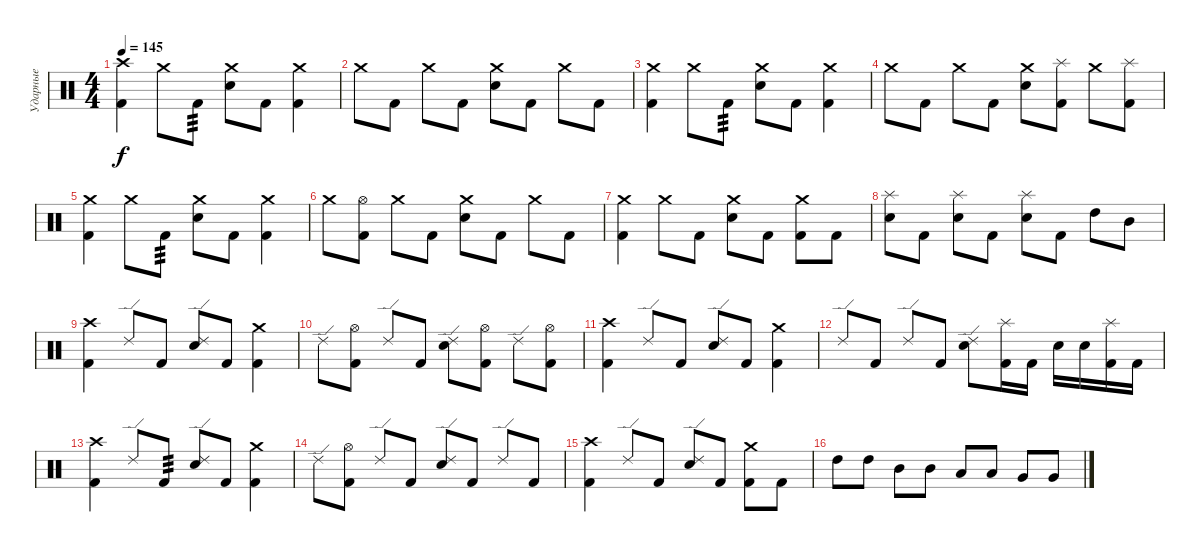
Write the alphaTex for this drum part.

\track ("Ударные" "Ударные") {instrument percussion}
\staff {score}
\articulation defaults
\ts (4 4)
\tempo 145
\clef neutral
\ks c
("Crash high (hit)" "Kick (hit) 2").4{dy f} "Crash medium (hit)".8 "Kick (hit) 2".8{tp 3} ("Crash medium (hit)" "Electric Snare (hit)").8 "Kick (hit) 2".8 ("Crash medium (hit)" "Kick (hit) 2").4 |
"Crash medium (hit)".8 "Kick (hit) 2".8 "Crash medium (hit)".8 "Kick (hit) 2".8 ("Crash medium (hit)" "Electric Snare (hit)").8 "Kick (hit) 2".8 "Crash medium (hit)".8 "Kick (hit) 2".8 |
("Crash medium (hit)" "Kick (hit) 2").4 "Crash medium (hit)".8 "Kick (hit) 2".8{tp 3} ("Crash medium (hit)" "Electric Snare (hit)").8 "Kick (hit) 2".8 ("Crash medium (hit)" "Kick (hit) 2").4 |
"Crash medium (hit)".8 "Kick (hit) 2".8 "Crash medium (hit)".8 "Kick (hit) 2".8 ("Crash medium (hit)" "Electric Snare (hit)").8 ("Splash (hit)" "Kick (hit) 2").8 "Crash medium (hit)".8 ("Splash (hit)" "Kick (hit) 2").8 |
("Crash medium (hit)" "Kick (hit) 2").4 "Crash medium (hit)".8 "Kick (hit) 2".8{tp 3} ("Crash medium (hit)" "Electric Snare (hit)").8 "Kick (hit) 2".8 ("Crash medium (hit)" "Kick (hit) 2").4 |
"Crash medium (hit)".8 ("Hi-Hat (open)" "Kick (hit) 2").8 "Crash medium (hit)".8 "Kick (hit) 2".8 ("Crash medium (hit)" "Electric Snare (hit)").8 "Kick (hit) 2".8 "Crash medium (hit)".8 "Kick (hit) 2".8 |
("Crash medium (hit)" "Kick (hit) 2").4 "Crash medium (hit)".8 "Kick (hit) 2".8 ("Crash medium (hit)" "Electric Snare (hit)").8 "Kick (hit) 2".8 ("Crash medium (hit)" "Kick (hit) 2").8 "Kick (hit) 2".8 |
("Splash (hit)" "Electric Snare (hit)").8 "Kick (hit) 2".8 ("Splash (hit)" "Electric Snare (hit)").8 "Kick (hit) 2".8 ("Splash (hit)" "Electric Snare (hit)").8 "Kick (hit) 2".8 "High Tom (hit)".8 "Mid Tom (hit)".8 |
("Crash high (hit)" "Kick (hit) 2").4 "Ride (edge) 2".8 "Kick (hit) 2".8 ("Ride (edge) 2" "Electric Snare (hit)").8 "Kick (hit) 2".8 ("Crash medium (hit)" "Kick (hit) 2").4 |
"Ride (edge) 2".8 ("Hi-Hat (open)" "Kick (hit) 2").8 "Ride (edge) 2".8 "Kick (hit) 2".8 ("Ride (edge) 2" "Electric Snare (hit)").8 ("Hi-Hat (open)" "Kick (hit) 2").8 "Ride (edge) 2".8 ("Hi-Hat (open)" "Kick (hit) 2").8 |
("Crash high (hit)" "Kick (hit) 2").4 "Ride (edge) 2".8 "Kick (hit) 2".8 ("Ride (edge) 2" "Electric Snare (hit)").8 "Kick (hit) 2".8 ("Crash medium (hit)" "Kick (hit) 2").4 |
"Ride (edge) 2".8 "Kick (hit) 2".8 "Ride (edge) 2".8 "Kick (hit) 2".8 ("Ride (edge) 2" "Electric Snare (hit)").8 ("Splash (hit)" "Kick (hit) 2").16 "Kick (hit) 2".16 "Electric Snare (hit)".16 "Electric Snare (hit)".16 ("Splash (hit)" "Kick (hit) 2").16 "Kick (hit) 2".16 |
("Crash high (hit)" "Kick (hit) 2").4 "Ride (edge) 2".8 "Kick (hit) 2".8{tp 3} ("Ride (edge) 2" "Electric Snare (hit)").8 "Kick (hit) 2".8 ("Crash medium (hit)" "Kick (hit) 2").4 |
"Ride (edge) 2".8 ("Hi-Hat (open)" "Kick (hit) 2").8 "Ride (edge) 2".8 "Kick (hit) 2".8 ("Ride (edge) 2" "Electric Snare (hit)").8 "Kick (hit) 2".8 "Ride (edge) 2".8 "Kick (hit) 2".8 |
("Crash high (hit)" "Kick (hit) 2").4 "Ride (edge) 2".8 "Kick (hit) 2".8 ("Ride (edge) 2" "Electric Snare (hit)").8 "Kick (hit) 2".8 ("Crash medium (hit)" "Kick (hit) 2").8 "Kick (hit) 2".8 |
"High Tom (hit)".8 "High Tom (hit)".8 "Mid Tom (hit)".8 "Mid Tom (hit)".8 "Low Tom (hit)".8 "Low Tom (hit)".8 "Very Low Tom (hit)".8 "Very Low Tom (hit)".8
